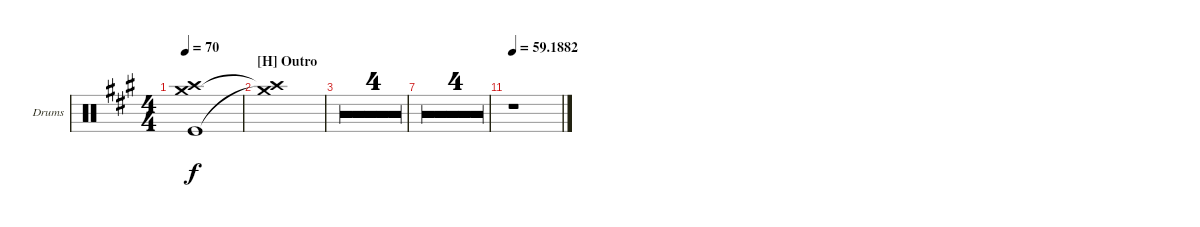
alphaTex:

\defaultSystemsLayout 4
\bracketExtendMode groupsimilarinstruments
\firstSystemTrackNameOrientation horizontal
\otherSystemsTrackNameOrientation horizontal
\track ("Dominic Boyce (Drums)" "Drums") {multiBarRest instrument percussion}
\staff {score}
\articulation defaults
\ts (4 4)
\tempo 70
\clef neutral
\ks a
("Kick (hit)"{t} "Crash medium (hit)"{t} "Crash high (hit)"{t}).1{dy f} |
\section ("H" "Outro")
\scale
0.459369 ("Crash medium (hit)"{t} "Crash high (hit)"{t}).1 |
\scale
0.540717 r.1 |
\scale 0
r.1 |
\scale 0
r.1 |
\scale 0
r.1 |
\tempo 72
\scale
0.463649 r.1 |
\scale 0
r.1 |
\scale 0
r.1 |
\scale 0
r.1 |
\tempo
59.1882
\scale
0.536504 r.1
